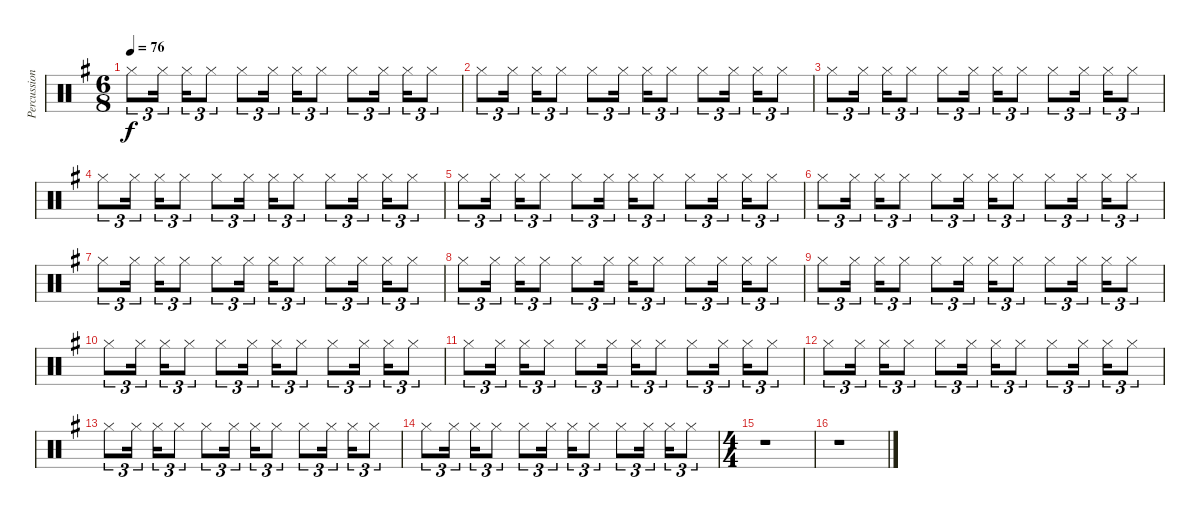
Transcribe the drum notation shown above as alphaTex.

\track ("Percussions 2" "Percussion") {instrument percussion}
\staff {score}
\articulation defaults
\ts (6 8)
\tempo 76
\clef neutral
\ks g "Hi-Hat (closed)".8{tu (3 2) dy f} "Hi-Hat (closed)".16{tu (3 2)} "Hi-Hat (closed)".16{tu (3 2)} "Hi-Hat (closed)".8{tu (3 2)} "Hi-Hat (closed)".8{tu (3 2)} "Hi-Hat (closed)".16{tu (3 2)} "Hi-Hat (closed)".16{tu (3 2)} "Hi-Hat (closed)".8{tu (3 2)} "Hi-Hat (closed)".8{tu (3 2)} "Hi-Hat (closed)".16{tu (3 2)} "Hi-Hat (closed)".16{tu (3 2)} "Hi-Hat (closed)".8{tu (3 2)}
|
"Hi-Hat (closed)".8{tu (3 2)} "Hi-Hat (closed)".16{tu (3 2)} "Hi-Hat (closed)".16{tu (3 2)} "Hi-Hat (closed)".8{tu (3 2)} "Hi-Hat (closed)".8{tu (3 2)} "Hi-Hat (closed)".16{tu (3 2)} "Hi-Hat (closed)".16{tu (3 2)} "Hi-Hat (closed)".8{tu (3 2)} "Hi-Hat (closed)".8{tu (3 2)} "Hi-Hat (closed)".16{tu (3 2)} "Hi-Hat (closed)".16{tu (3 2)} "Hi-Hat (closed)".8{tu (3 2)} |
"Hi-Hat (closed)".8{tu (3 2)} "Hi-Hat (closed)".16{tu (3 2)} "Hi-Hat (closed)".16{tu (3 2)} "Hi-Hat (closed)".8{tu (3 2)} "Hi-Hat (closed)".8{tu (3 2)} "Hi-Hat (closed)".16{tu (3 2)} "Hi-Hat (closed)".16{tu (3 2)} "Hi-Hat (closed)".8{tu (3 2)} "Hi-Hat (closed)".8{tu (3 2)} "Hi-Hat (closed)".16{tu (3 2)} "Hi-Hat (closed)".16{tu (3 2)} "Hi-Hat (closed)".8{tu (3 2)} |
"Hi-Hat (closed)".8{tu (3 2)} "Hi-Hat (closed)".16{tu (3 2)} "Hi-Hat (closed)".16{tu (3 2)} "Hi-Hat (closed)".8{tu (3 2)} "Hi-Hat (closed)".8{tu (3 2)} "Hi-Hat (closed)".16{tu (3 2)} "Hi-Hat (closed)".16{tu (3 2)} "Hi-Hat (closed)".8{tu (3 2)} "Hi-Hat (closed)".8{tu (3 2)} "Hi-Hat (closed)".16{tu (3 2)} "Hi-Hat (closed)".16{tu (3 2)} "Hi-Hat (closed)".8{tu (3 2)} |
"Hi-Hat (closed)".8{tu (3 2)} "Hi-Hat (closed)".16{tu (3 2)} "Hi-Hat (closed)".16{tu (3 2)} "Hi-Hat (closed)".8{tu (3 2)} "Hi-Hat (closed)".8{tu (3 2)} "Hi-Hat (closed)".16{tu (3 2)} "Hi-Hat (closed)".16{tu (3 2)} "Hi-Hat (closed)".8{tu (3 2)} "Hi-Hat (closed)".8{tu (3 2)} "Hi-Hat (closed)".16{tu (3 2)} "Hi-Hat (closed)".16{tu (3 2)} "Hi-Hat (closed)".8{tu (3 2)} |
"Hi-Hat (closed)".8{tu (3 2)} "Hi-Hat (closed)".16{tu (3 2)} "Hi-Hat (closed)".16{tu (3 2)} "Hi-Hat (closed)".8{tu (3 2)} "Hi-Hat (closed)".8{tu (3 2)} "Hi-Hat (closed)".16{tu (3 2)} "Hi-Hat (closed)".16{tu (3 2)} "Hi-Hat (closed)".8{tu (3 2)} "Hi-Hat (closed)".8{tu (3 2)} "Hi-Hat (closed)".16{tu (3 2)} "Hi-Hat (closed)".16{tu (3 2)} "Hi-Hat (closed)".8{tu (3 2)} |
"Hi-Hat (closed)".8{tu (3 2)} "Hi-Hat (closed)".16{tu (3 2)} "Hi-Hat (closed)".16{tu (3 2)} "Hi-Hat (closed)".8{tu (3 2)} "Hi-Hat (closed)".8{tu (3 2)} "Hi-Hat (closed)".16{tu (3 2)} "Hi-Hat (closed)".16{tu (3 2)} "Hi-Hat (closed)".8{tu (3 2)} "Hi-Hat (closed)".8{tu (3 2)} "Hi-Hat (closed)".16{tu (3 2)} "Hi-Hat (closed)".16{tu (3 2)} "Hi-Hat (closed)".8{tu (3 2)} |
"Hi-Hat (closed)".8{tu (3 2)} "Hi-Hat (closed)".16{tu (3 2)} "Hi-Hat (closed)".16{tu (3 2)} "Hi-Hat (closed)".8{tu (3 2)} "Hi-Hat (closed)".8{tu (3 2)} "Hi-Hat (closed)".16{tu (3 2)} "Hi-Hat (closed)".16{tu (3 2)} "Hi-Hat (closed)".8{tu (3 2)} "Hi-Hat (closed)".8{tu (3 2)} "Hi-Hat (closed)".16{tu (3 2)} "Hi-Hat (closed)".16{tu (3 2)} "Hi-Hat (closed)".8{tu (3 2)} |
"Hi-Hat (closed)".8{tu (3 2)} "Hi-Hat (closed)".16{tu (3 2)} "Hi-Hat (closed)".16{tu (3 2)} "Hi-Hat (closed)".8{tu (3 2)} "Hi-Hat (closed)".8{tu (3 2)} "Hi-Hat (closed)".16{tu (3 2)} "Hi-Hat (closed)".16{tu (3 2)} "Hi-Hat (closed)".8{tu (3 2)} "Hi-Hat (closed)".8{tu (3 2)} "Hi-Hat (closed)".16{tu (3 2)} "Hi-Hat (closed)".16{tu (3 2)} "Hi-Hat (closed)".8{tu (3 2)} |
"Hi-Hat (closed)".8{tu (3 2)} "Hi-Hat (closed)".16{tu (3 2)} "Hi-Hat (closed)".16{tu (3 2)} "Hi-Hat (closed)".8{tu (3 2)} "Hi-Hat (closed)".8{tu (3 2)} "Hi-Hat (closed)".16{tu (3 2)} "Hi-Hat (closed)".16{tu (3 2)} "Hi-Hat (closed)".8{tu (3 2)} "Hi-Hat (closed)".8{tu (3 2)} "Hi-Hat (closed)".16{tu (3 2)} "Hi-Hat (closed)".16{tu (3 2)} "Hi-Hat (closed)".8{tu (3 2)} |
"Hi-Hat (closed)".8{tu (3 2)} "Hi-Hat (closed)".16{tu (3 2)} "Hi-Hat (closed)".16{tu (3 2)} "Hi-Hat (closed)".8{tu (3 2)} "Hi-Hat (closed)".8{tu (3 2)} "Hi-Hat (closed)".16{tu (3 2)} "Hi-Hat (closed)".16{tu (3 2)} "Hi-Hat (closed)".8{tu (3 2)} "Hi-Hat (closed)".8{tu (3 2)} "Hi-Hat (closed)".16{tu (3 2)} "Hi-Hat (closed)".16{tu (3 2)} "Hi-Hat (closed)".8{tu (3 2)} |
"Hi-Hat (closed)".8{tu (3 2)} "Hi-Hat (closed)".16{tu (3 2)} "Hi-Hat (closed)".16{tu (3 2)} "Hi-Hat (closed)".8{tu (3 2)} "Hi-Hat (closed)".8{tu (3 2)} "Hi-Hat (closed)".16{tu (3 2)} "Hi-Hat (closed)".16{tu (3 2)} "Hi-Hat (closed)".8{tu (3 2)} "Hi-Hat (closed)".8{tu (3 2)} "Hi-Hat (closed)".16{tu (3 2)} "Hi-Hat (closed)".16{tu (3 2)} "Hi-Hat (closed)".8{tu (3 2)} |
"Hi-Hat (closed)".8{tu (3 2)} "Hi-Hat (closed)".16{tu (3 2)} "Hi-Hat (closed)".16{tu (3 2)} "Hi-Hat (closed)".8{tu (3 2)} "Hi-Hat (closed)".8{tu (3 2)} "Hi-Hat (closed)".16{tu (3 2)} "Hi-Hat (closed)".16{tu (3 2)} "Hi-Hat (closed)".8{tu (3 2)} "Hi-Hat (closed)".8{tu (3 2)} "Hi-Hat (closed)".16{tu (3 2)} "Hi-Hat (closed)".16{tu (3 2)} "Hi-Hat (closed)".8{tu (3 2)} |
"Hi-Hat (closed)".8{tu (3 2)} "Hi-Hat (closed)".16{tu (3 2)} "Hi-Hat (closed)".16{tu (3 2)} "Hi-Hat (closed)".8{tu (3 2)} "Hi-Hat (closed)".8{tu (3 2)} "Hi-Hat (closed)".16{tu (3 2)} "Hi-Hat (closed)".16{tu (3 2)} "Hi-Hat (closed)".8{tu (3 2)} "Hi-Hat (closed)".8{tu (3 2)} "Hi-Hat (closed)".16{tu (3 2)} "Hi-Hat (closed)".16{tu (3 2)} "Hi-Hat (closed)".8{tu (3 2)} |
\ts (4 4)
r.1 |
r.1
